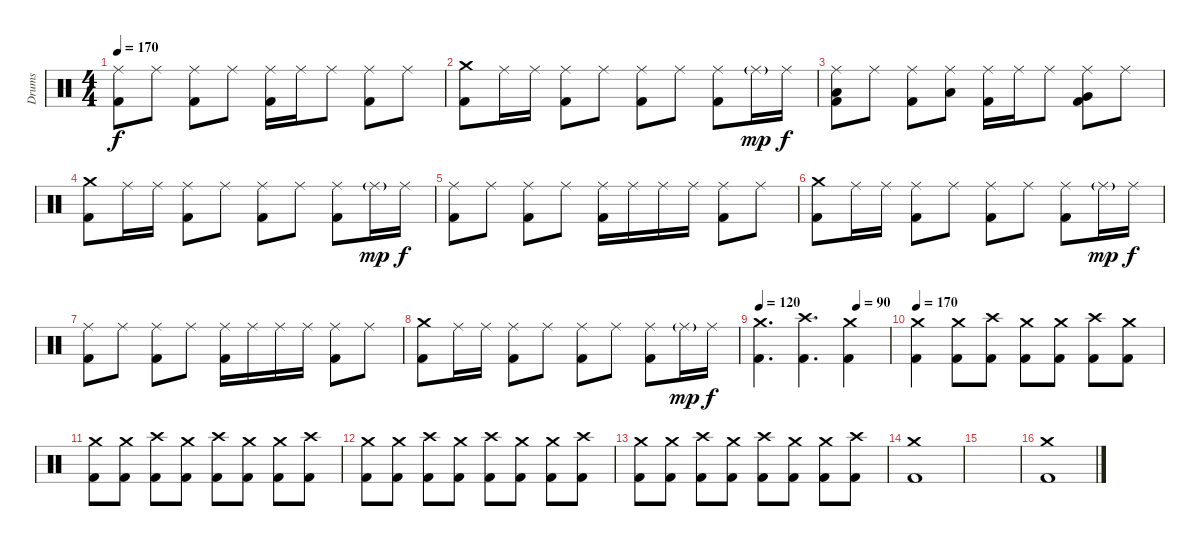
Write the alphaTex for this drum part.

\track ("Drums" "Drums") {instrument percussion}
\staff {score}
\articulation defaults
\ts (4 4)
\tempo 170
\clef neutral
\ks c
("Ride (middle)" "Kick (hit) 2").8{dy f} "Ride (middle)".8 ("Ride (middle)" "Kick (hit) 2").8 "Ride (middle)".8 ("Ride (middle)" "Kick (hit) 2").16 "Ride (middle)".16 "Ride (middle)".8 ("Ride (middle)" "Kick (hit) 2").8 "Ride (middle)".8 |
("Crash medium (hit)" "Kick (hit) 2").8 "Ride (middle)".16 "Ride (middle)".16 ("Ride (middle)" "Kick (hit) 2").8 "Ride (middle)".8 ("Ride (middle)" "Kick (hit) 2").8 "Ride (middle)".8 ("Ride (middle)" "Kick (hit) 2").8 "Ride (middle)"{g}.16{dy mp} "Ride (middle)".16{dy f} |
("Ride (middle)" "Low Floor Tom (hit)" "Kick (hit) 2").8 "Ride (middle)".8 ("Ride (middle)" "Kick (hit) 2").8 ("Ride (middle)" "Low Tom (hit)").8 ("Ride (middle)" "Kick (hit) 2").16 "Ride (middle)".16 "Ride (middle)".8 ("Ride (middle)" "Very Low Tom (hit)" "Kick (hit) 2").8 "Ride (middle)".8 |
("Crash medium (hit)" "Kick (hit) 2").8 "Ride (middle)".16 "Ride (middle)".16 ("Ride (middle)" "Kick (hit) 2").8 "Ride (middle)".8 ("Ride (middle)" "Kick (hit) 2").8 "Ride (middle)".8 ("Ride (middle)" "Kick (hit) 2").8 "Ride (middle)"{g}.16{dy mp} "Ride (middle)".16{dy f} |
("Ride (middle)" "Kick (hit) 2").8 "Ride (middle)".8 ("Ride (middle)" "Kick (hit) 2").8 "Ride (middle)".8 ("Ride (middle)" "Kick (hit) 2").16 "Ride (middle)".16 "Ride (middle)".16 "Ride (middle)".16 ("Ride (middle)" "Kick (hit) 2").8 "Ride (middle)".8 |
("Crash medium (hit)" "Kick (hit) 2").8 "Ride (middle)".16 "Ride (middle)".16 ("Ride (middle)" "Kick (hit) 2").8 "Ride (middle)".8 ("Ride (middle)" "Kick (hit) 2").8 "Ride (middle)".8 ("Ride (middle)" "Kick (hit) 2").8 "Ride (middle)"{g}.16{dy mp} "Ride (middle)".16{dy f} |
("Ride (middle)" "Kick (hit) 2").8 "Ride (middle)".8 ("Ride (middle)" "Kick (hit) 2").8 "Ride (middle)".8 ("Ride (middle)" "Kick (hit) 2").16 "Ride (middle)".16 "Ride (middle)".16 "Ride (middle)".16 ("Ride (middle)" "Kick (hit) 2").8 "Ride (middle)".8 |
("Crash medium (hit)" "Kick (hit) 2").8 "Ride (middle)".16 "Ride (middle)".16 ("Ride (middle)" "Kick (hit) 2").8 "Ride (middle)".8 ("Ride (middle)" "Kick (hit) 2").8 "Ride (middle)".8 ("Ride (middle)" "Kick (hit) 2").8 "Ride (middle)"{g}.16{dy mp} "Ride (middle)".16{dy f} |
\tempo 120
\tempo (90 0.75)
("Crash medium (hit)" "Kick (hit) 2").4{d} ("Crash high (hit)" "Kick (hit) 2").4{d} ("Crash medium (hit)" "Kick (hit) 2").4 |
\tempo 170
("Crash medium (hit)" "Kick (hit) 2").4 ("Crash medium (hit)" "Kick (hit) 2").8 ("Crash high (hit)" "Kick (hit) 2").8 ("Crash medium (hit)" "Kick (hit) 2").8 ("Crash medium (hit)" "Kick (hit) 2").8 ("Crash high (hit)" "Kick (hit) 2").8 ("Crash medium (hit)" "Kick (hit) 2").8 |
("Crash medium (hit)" "Kick (hit) 2").8 ("Crash medium (hit)" "Kick (hit) 2").8 ("Crash high (hit)" "Kick (hit) 2").8 ("Crash medium (hit)" "Kick (hit) 2").8 ("Crash high (hit)" "Kick (hit) 2").8 ("Crash medium (hit)" "Kick (hit) 2").8 ("Crash medium (hit)" "Kick (hit) 2").8 ("Crash high (hit)" "Kick (hit) 2").8 |
("Crash medium (hit)" "Kick (hit) 2").8 ("Crash medium (hit)" "Kick (hit) 2").8 ("Crash high (hit)" "Kick (hit) 2").8 ("Crash medium (hit)" "Kick (hit) 2").8 ("Crash high (hit)" "Kick (hit) 2").8 ("Crash medium (hit)" "Kick (hit) 2").8 ("Crash medium (hit)" "Kick (hit) 2").8 ("Crash high (hit)" "Kick (hit) 2").8 |
("Crash medium (hit)" "Kick (hit) 2").8 ("Crash medium (hit)" "Kick (hit) 2").8 ("Crash high (hit)" "Kick (hit) 2").8 ("Crash medium (hit)" "Kick (hit) 2").8 ("Crash high (hit)" "Kick (hit) 2").8 ("Crash medium (hit)" "Kick (hit) 2").8 ("Crash medium (hit)" "Kick (hit) 2").8 ("Crash high (hit)" "Kick (hit) 2").8 |
("Crash medium (hit)" "Kick (hit) 2").1 |
|
("Crash medium (hit)" "Kick (hit) 2").1
